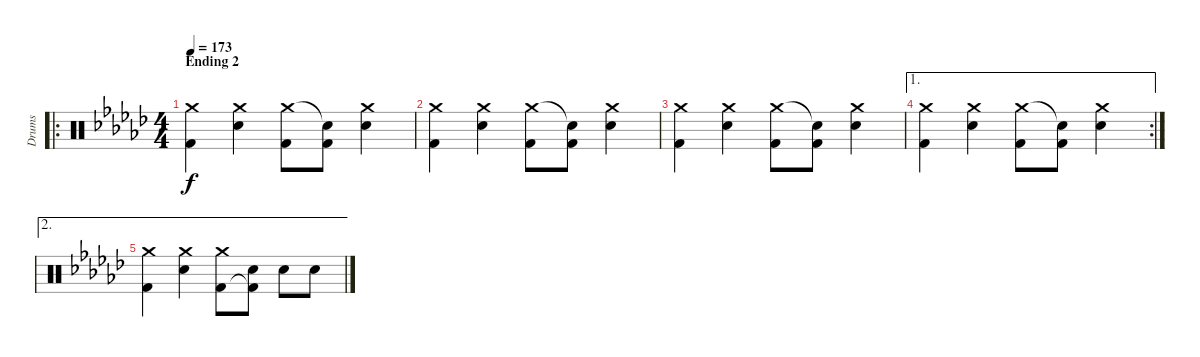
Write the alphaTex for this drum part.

\track ("Drums" "Drums") {instrument percussion}
\staff {score}
\articulation defaults
\ro
\ts (4 4)
\section ("" "Ending 2")
\tempo 173
\clef neutral
\ks ebminor
("Crash medium (hit)" "Kick (hit) 2").4{dy f} ("Crash medium (hit)" "Electric Snare (hit)").4 ("Crash medium (hit)" "Kick (hit) 2").8 ("Snare (hit)"{t} "Kick (hit) 2").8 ("Crash medium (hit)" "Electric Snare (hit)").4 |
("Crash medium (hit)" "Kick (hit) 2").4 ("Crash medium (hit)" "Electric Snare (hit)").4 ("Crash medium (hit)" "Kick (hit) 2").8 ("Snare (hit)"{t} "Kick (hit) 2").8 ("Crash medium (hit)" "Electric Snare (hit)").4 |
("Crash medium (hit)" "Kick (hit) 2").4 ("Crash medium (hit)" "Electric Snare (hit)").4 ("Crash medium (hit)" "Kick (hit) 2").8 ("Snare (hit)"{t} "Kick (hit) 2").8 ("Crash medium (hit)" "Electric Snare (hit)").4 |
\ae 1
\rc 2
("Crash medium (hit)" "Kick (hit) 2").4 ("Crash medium (hit)" "Electric Snare (hit)").4 ("Crash medium (hit)" "Kick (hit) 2").8 ("Snare (hit)"{t} "Kick (hit) 2").8 ("Crash medium (hit)" "Electric Snare (hit)").4 |
\ae 2
("Crash medium (hit)" "Kick (hit) 2").4 ("Crash medium (hit)" "Electric Snare (hit)").4 ("Crash medium (hit)" "Kick (hit) 2").8 ("Electric Snare (hit)" "Kick (hit) 2"{t}).8 "Electric Snare (hit)".8 "Electric Snare (hit)".8
